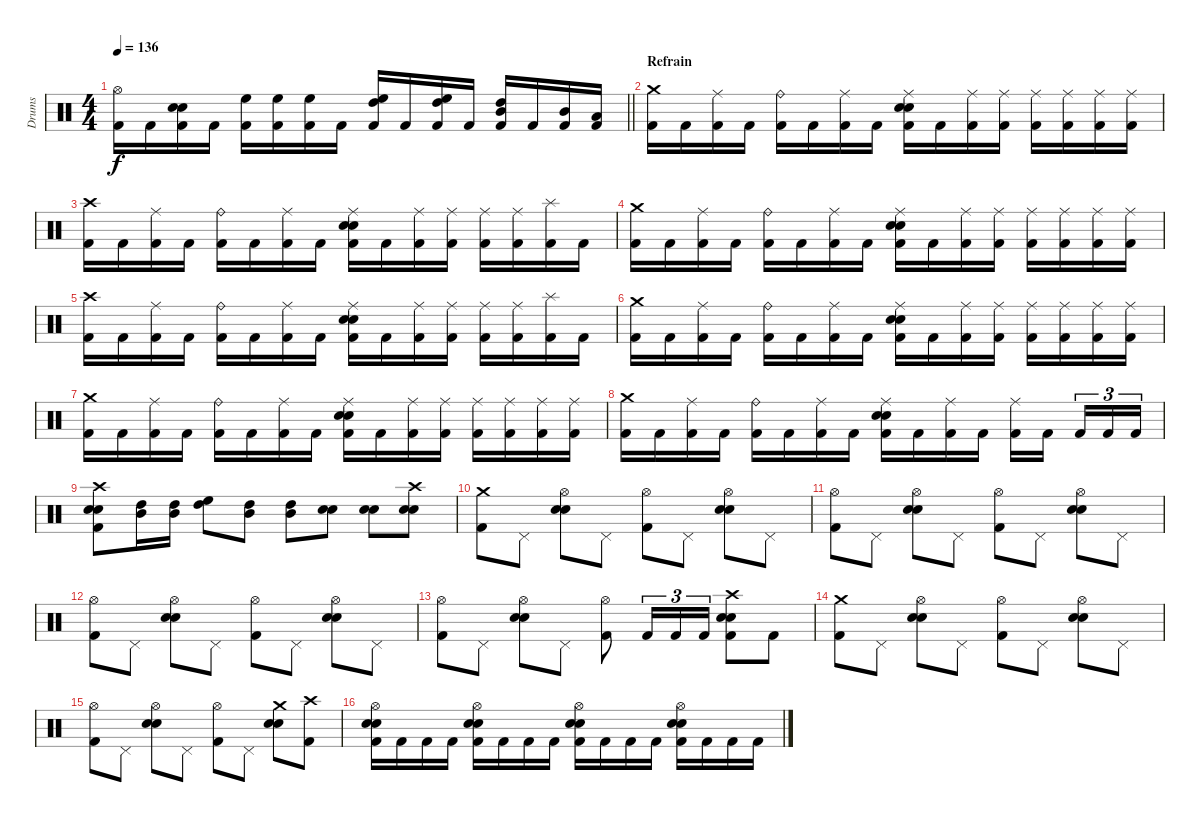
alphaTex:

\track ("Drums" "Drums") {instrument percussion}
\staff {score}
\articulation defaults
\ts (4 4)
\tempo 136
\clef neutral
\barLineRight lightlight
\ks c
("Hi-Hat (open)" "Kick (hit) 2").16{dy f} "Kick (hit) 2".16 ("Electric Snare (hit)" "Snare (hit) 2" "Kick (hit) 2").16 "Kick (hit) 2".16 ("High Floor Tom (hit)" "Kick (hit) 2").16 ("High Floor Tom (hit)" "Kick (hit) 2").16 ("High Floor Tom (hit)" "Kick (hit) 2").16 "Kick (hit) 2".16 ("High Floor Tom (hit)" "High Tom (hit)" "Kick (hit) 2").16 "Kick (hit) 2".16 ("High Floor Tom (hit)" "High Tom (hit)" "Kick (hit) 2").16 "Kick (hit) 2".16 ("High Tom (hit)" "Mid Tom (hit)" "Kick (hit) 2").16 "Kick (hit) 2".16 ("Mid Tom (hit)" "Kick (hit) 2").16 ("Low Tom (hit)" "Kick (hit) 2").16 |
\section ("" "Refrain")
("Crash medium (hit)" "Kick (hit) 2").16 "Kick (hit) 2".16 ("Ride (middle)" "Kick (hit) 2").16 "Kick (hit) 2".16 ("Ride (bell)" "Kick (hit) 2").16 "Kick (hit) 2".16 ("Ride (middle)" "Kick (hit) 2").16 "Kick (hit) 2".16 ("Ride (middle)" "Electric Snare (hit)" "Snare (hit) 2" "Kick (hit) 2").16 "Kick (hit) 2".16 ("Ride (middle)" "Kick (hit) 2").16 ("Ride (middle)" "Kick (hit) 2").16 ("Ride (middle)" "Kick (hit) 2").16 ("Ride (middle)" "Kick (hit) 2").16 ("Ride (middle)" "Kick (hit) 2").16 ("Ride (middle)" "Kick (hit) 2").16 |
("Crash high (hit)" "Kick (hit) 2").16 "Kick (hit) 2".16 ("Ride (middle)" "Kick (hit) 2").16 "Kick (hit) 2".16 ("Ride (bell)" "Kick (hit) 2").16 "Kick (hit) 2".16 ("Ride (middle)" "Kick (hit) 2").16 "Kick (hit) 2".16 ("Ride (middle)" "Electric Snare (hit)" "Snare (hit) 2" "Kick (hit) 2").16 "Kick (hit) 2".16 ("Ride (middle)" "Kick (hit) 2").16 ("Ride (middle)" "Kick (hit) 2").16 ("Ride (middle)" "Kick (hit) 2").16 ("Ride (middle)" "Kick (hit) 2").16 ("Splash (hit)" "Kick (hit) 2").16 "Kick (hit) 2".16 |
("Crash medium (hit)" "Kick (hit) 2").16 "Kick (hit) 2".16 ("Ride (middle)" "Kick (hit) 2").16 "Kick (hit) 2".16 ("Ride (bell)" "Kick (hit) 2").16 "Kick (hit) 2".16 ("Ride (middle)" "Kick (hit) 2").16 "Kick (hit) 2".16 ("Ride (middle)" "Electric Snare (hit)" "Snare (hit) 2" "Kick (hit) 2").16 "Kick (hit) 2".16 ("Ride (middle)" "Kick (hit) 2").16 ("Ride (middle)" "Kick (hit) 2").16 ("Ride (middle)" "Kick (hit) 2").16 ("Ride (middle)" "Kick (hit) 2").16 ("Ride (middle)" "Kick (hit) 2").16 ("Ride (middle)" "Kick (hit) 2").16 |
("Crash high (hit)" "Kick (hit) 2").16 "Kick (hit) 2".16 ("Ride (middle)" "Kick (hit) 2").16 "Kick (hit) 2".16 ("Ride (bell)" "Kick (hit) 2").16 "Kick (hit) 2".16 ("Ride (middle)" "Kick (hit) 2").16 "Kick (hit) 2".16 ("Ride (middle)" "Electric Snare (hit)" "Snare (hit) 2" "Kick (hit) 2").16 "Kick (hit) 2".16 ("Ride (middle)" "Kick (hit) 2").16 ("Ride (middle)" "Kick (hit) 2").16 ("Ride (middle)" "Kick (hit) 2").16 ("Ride (middle)" "Kick (hit) 2").16 ("Splash (hit)" "Kick (hit) 2").16 "Kick (hit) 2".16 |
("Crash medium (hit)" "Kick (hit) 2").16 "Kick (hit) 2".16 ("Ride (middle)" "Kick (hit) 2").16 "Kick (hit) 2".16 ("Ride (bell)" "Kick (hit) 2").16 "Kick (hit) 2".16 ("Ride (middle)" "Kick (hit) 2").16 "Kick (hit) 2".16 ("Ride (middle)" "Electric Snare (hit)" "Snare (hit) 2" "Kick (hit) 2").16 "Kick (hit) 2".16 ("Ride (middle)" "Kick (hit) 2").16 ("Ride (middle)" "Kick (hit) 2").16 ("Ride (middle)" "Kick (hit) 2").16 ("Ride (middle)" "Kick (hit) 2").16 ("Ride (middle)" "Kick (hit) 2").16 ("Ride (middle)" "Kick (hit) 2").16 |
("Crash medium (hit)" "Kick (hit) 2").16 "Kick (hit) 2".16 ("Ride (middle)" "Kick (hit) 2").16 "Kick (hit) 2".16 ("Ride (bell)" "Kick (hit) 2").16 "Kick (hit) 2".16 ("Ride (middle)" "Kick (hit) 2").16 "Kick (hit) 2".16 ("Ride (middle)" "Electric Snare (hit)" "Snare (hit) 2" "Kick (hit) 2").16 "Kick (hit) 2".16 ("Ride (middle)" "Kick (hit) 2").16 ("Ride (middle)" "Kick (hit) 2").16 ("Ride (middle)" "Kick (hit) 2").16 ("Ride (middle)" "Kick (hit) 2").16 ("Ride (middle)" "Kick (hit) 2").16 ("Ride (middle)" "Kick (hit) 2").16 |
("Crash medium (hit)" "Kick (hit) 2").16 "Kick (hit) 2".16 ("Ride (middle)" "Kick (hit) 2").16 "Kick (hit) 2".16 ("Ride (bell)" "Kick (hit) 2").16 "Kick (hit) 2".16 ("Ride (middle)" "Kick (hit) 2").16 "Kick (hit) 2".16 ("Ride (middle)" "Electric Snare (hit)" "Snare (hit) 2" "Kick (hit) 2").16 "Kick (hit) 2".16 ("Ride (middle)" "Kick (hit) 2").16 "Kick (hit) 2".16 ("Ride (middle)" "Kick (hit) 2").16 "Kick (hit) 2".16{beam splitsecondary} "Kick (hit) 2".16{tu (3 2)} "Kick (hit) 2".16{tu (3 2)} "Kick (hit) 2".16{tu (3 2)} |
("Crash high (hit)" "Electric Snare (hit)" "Snare (hit) 2" "Kick (hit) 2").8 ("High Tom (hit)" "Mid Tom (hit)").16 ("High Tom (hit)" "Mid Tom (hit)").16 ("High Floor Tom (hit)" "High Tom (hit)").8 ("High Tom (hit)" "Mid Tom (hit)").8 ("High Tom (hit)" "Mid Tom (hit)").8 ("Electric Snare (hit)" "Snare (hit) 2").8 ("Electric Snare (hit)" "Snare (hit) 2").8 ("Crash high (hit)" "Electric Snare (hit)" "Snare (hit) 2").8 |
("Crash medium (hit)" "Kick (hit) 2").8 "Pedal Hi-Hat (hit)".8 ("Hi-Hat (open)" "Electric Snare (hit)" "Snare (hit) 2").8 "Pedal Hi-Hat (hit)".8 ("Hi-Hat (open)" "Kick (hit) 2").8 "Pedal Hi-Hat (hit)".8 ("Hi-Hat (open)" "Electric Snare (hit)" "Snare (hit) 2").8 "Pedal Hi-Hat (hit)".8 |
("Hi-Hat (open)" "Kick (hit) 2").8 "Pedal Hi-Hat (hit)".8 ("Hi-Hat (open)" "Electric Snare (hit)" "Snare (hit) 2").8 "Pedal Hi-Hat (hit)".8 ("Hi-Hat (open)" "Kick (hit) 2").8 "Pedal Hi-Hat (hit)".8 ("Hi-Hat (open)" "Electric Snare (hit)" "Snare (hit) 2").8 "Pedal Hi-Hat (hit)".8 |
("Hi-Hat (open)" "Kick (hit) 2").8 "Pedal Hi-Hat (hit)".8 ("Hi-Hat (open)" "Electric Snare (hit)" "Snare (hit) 2").8 "Pedal Hi-Hat (hit)".8 ("Hi-Hat (open)" "Kick (hit) 2").8 "Pedal Hi-Hat (hit)".8 ("Hi-Hat (open)" "Electric Snare (hit)" "Snare (hit) 2").8 "Pedal Hi-Hat (hit)".8 |
("Hi-Hat (open)" "Kick (hit) 2").8 "Pedal Hi-Hat (hit)".8 ("Hi-Hat (open)" "Electric Snare (hit)" "Snare (hit) 2").8 "Pedal Hi-Hat (hit)".8 ("Hi-Hat (open)" "Kick (hit) 2").8 "Kick (hit) 2".16{tu (3 2)} "Kick (hit) 2".16{tu (3 2)} "Kick (hit) 2".16{tu (3 2)} ("Crash high (hit)" "Electric Snare (hit)" "Snare (hit) 2" "Kick (hit) 2").8 "Kick (hit) 2".8 |
("Crash medium (hit)" "Kick (hit) 2").8 "Pedal Hi-Hat (hit)".8 ("Hi-Hat (open)" "Electric Snare (hit)" "Snare (hit) 2").8 "Pedal Hi-Hat (hit)".8 ("Hi-Hat (open)" "Kick (hit) 2").8 "Pedal Hi-Hat (hit)".8 ("Hi-Hat (open)" "Electric Snare (hit)" "Snare (hit) 2").8 "Pedal Hi-Hat (hit)".8 |
("Hi-Hat (open)" "Kick (hit) 2").8 "Pedal Hi-Hat (hit)".8 ("Hi-Hat (open)" "Electric Snare (hit)" "Snare (hit) 2").8 "Pedal Hi-Hat (hit)".8 ("Hi-Hat (open)" "Kick (hit) 2").8 "Pedal Hi-Hat (hit)".8 ("Crash medium (hit)" "Electric Snare (hit)" "Snare (hit) 2").8 ("Crash high (hit)" "Kick (hit) 2").8 |
("Hi-Hat (open)" "Electric Snare (hit)" "Snare (hit) 2" "Kick (hit) 2").16 "Kick (hit) 2".16 "Kick (hit) 2".16 "Kick (hit) 2".16 ("Hi-Hat (open)" "Electric Snare (hit)" "Snare (hit) 2" "Kick (hit) 2").16 "Kick (hit) 2".16 "Kick (hit) 2".16 "Kick (hit) 2".16 ("Hi-Hat (open)" "Electric Snare (hit)" "Snare (hit) 2" "Kick (hit) 2").16 "Kick (hit) 2".16 "Kick (hit) 2".16 "Kick (hit) 2".16 ("Hi-Hat (open)" "Electric Snare (hit)" "Snare (hit) 2" "Kick (hit) 2").16 "Kick (hit) 2".16 "Kick (hit) 2".16 "Kick (hit) 2".16
